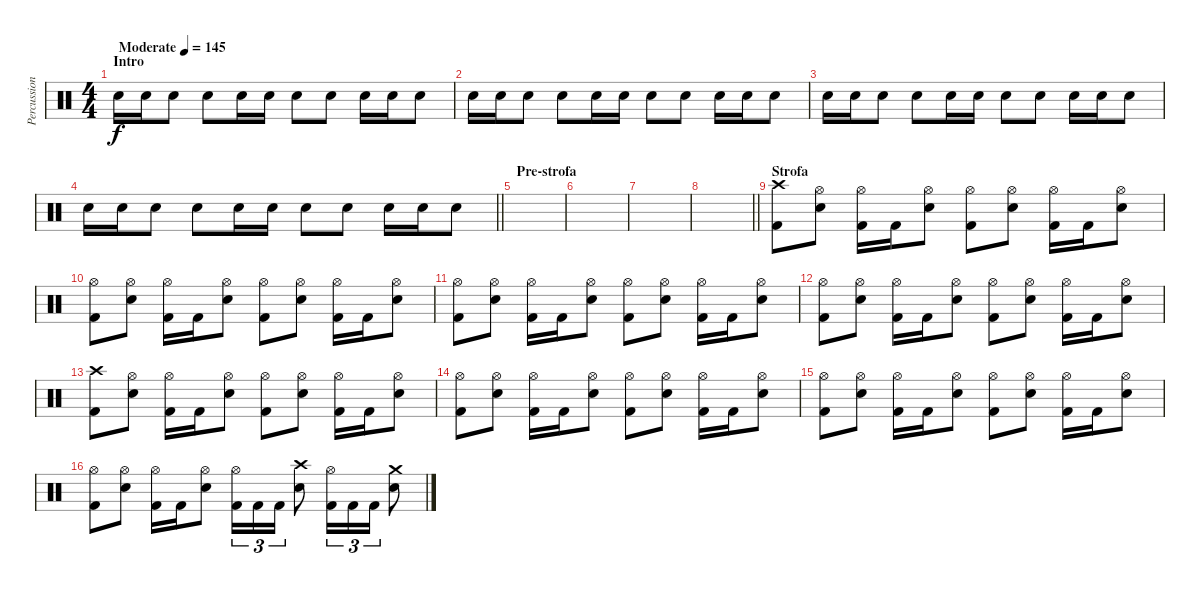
\track ("Percussioni" "Percussion") {instrument percussion}
\staff {score}
\articulation defaults
\ts (4 4)
\section ("" "Intro")
\tempo (145 "Moderate")
\clef neutral
\ks c "Snare (hit) 2".16{dy f} "Snare (hit) 2".16 "Snare (hit) 2".8 "Snare (hit) 2".8 "Snare (hit) 2".16 "Snare (hit) 2".16 "Snare (hit) 2".8 "Snare (hit) 2".8 "Snare (hit) 2".16 "Snare (hit) 2".16 "Snare (hit) 2".8
|
"Snare (hit) 2".16 "Snare (hit) 2".16 "Snare (hit) 2".8 "Snare (hit) 2".8 "Snare (hit) 2".16 "Snare (hit) 2".16 "Snare (hit) 2".8 "Snare (hit) 2".8 "Snare (hit) 2".16 "Snare (hit) 2".16 "Snare (hit) 2".8 |
"Snare (hit) 2".16 "Snare (hit) 2".16 "Snare (hit) 2".8 "Snare (hit) 2".8 "Snare (hit) 2".16 "Snare (hit) 2".16 "Snare (hit) 2".8 "Snare (hit) 2".8 "Snare (hit) 2".16 "Snare (hit) 2".16 "Snare (hit) 2".8 |
\barLineRight lightlight "Snare (hit) 2".16 "Snare (hit) 2".16 "Snare (hit) 2".8 "Snare (hit) 2".8 "Snare (hit) 2".16 "Snare (hit) 2".16 "Snare (hit) 2".8 "Snare (hit) 2".8 "Snare (hit) 2".16 "Snare (hit) 2".16 "Snare (hit) 2".8
|
\section ("" "Pre-strofa")
|
|
|
\barLineRight lightlight
|
\section ("" "Strofa")
("Crash high (hit)" "Kick (hit) 2").8 ("Hi-Hat (open)" "Snare (hit) 2").8 ("Hi-Hat (open)" "Kick (hit) 2").16 "Kick (hit) 2".16 ("Hi-Hat (open)" "Snare (hit) 2").8 ("Hi-Hat (open)" "Kick (hit) 2").8 ("Hi-Hat (open)" "Snare (hit) 2").8 ("Hi-Hat (open)" "Kick (hit) 2").16 "Kick (hit) 2".16 ("Hi-Hat (open)" "Snare (hit) 2").8 |
("Hi-Hat (open)" "Kick (hit) 2").8 ("Hi-Hat (open)" "Snare (hit) 2").8 ("Hi-Hat (open)" "Kick (hit) 2").16 "Kick (hit) 2".16 ("Hi-Hat (open)" "Snare (hit) 2").8 ("Hi-Hat (open)" "Kick (hit) 2").8 ("Hi-Hat (open)" "Snare (hit) 2").8 ("Hi-Hat (open)" "Kick (hit) 2").16 "Kick (hit) 2".16 ("Hi-Hat (open)" "Snare (hit) 2").8 |
("Hi-Hat (open)" "Kick (hit) 2").8 ("Hi-Hat (open)" "Snare (hit) 2").8 ("Hi-Hat (open)" "Kick (hit) 2").16 "Kick (hit) 2".16 ("Hi-Hat (open)" "Snare (hit) 2").8 ("Hi-Hat (open)" "Kick (hit) 2").8 ("Hi-Hat (open)" "Snare (hit) 2").8 ("Hi-Hat (open)" "Kick (hit) 2").16 "Kick (hit) 2".16 ("Hi-Hat (open)" "Snare (hit) 2").8 |
("Hi-Hat (open)" "Kick (hit) 2").8 ("Hi-Hat (open)" "Snare (hit) 2").8 ("Hi-Hat (open)" "Kick (hit) 2").16 "Kick (hit) 2".16 ("Hi-Hat (open)" "Snare (hit) 2").8 ("Hi-Hat (open)" "Kick (hit) 2").8 ("Hi-Hat (open)" "Snare (hit) 2").8 ("Hi-Hat (open)" "Kick (hit) 2").16 "Kick (hit) 2".16 ("Hi-Hat (open)" "Snare (hit) 2").8 |
("Crash high (hit)" "Kick (hit) 2").8 ("Hi-Hat (open)" "Snare (hit) 2").8 ("Hi-Hat (open)" "Kick (hit) 2").16 "Kick (hit) 2".16 ("Hi-Hat (open)" "Snare (hit) 2").8 ("Hi-Hat (open)" "Kick (hit) 2").8 ("Hi-Hat (open)" "Snare (hit) 2").8 ("Hi-Hat (open)" "Kick (hit) 2").16 "Kick (hit) 2".16 ("Hi-Hat (open)" "Snare (hit) 2").8 |
("Hi-Hat (open)" "Kick (hit) 2").8 ("Hi-Hat (open)" "Snare (hit) 2").8 ("Hi-Hat (open)" "Kick (hit) 2").16 "Kick (hit) 2".16 ("Hi-Hat (open)" "Snare (hit) 2").8 ("Hi-Hat (open)" "Kick (hit) 2").8 ("Hi-Hat (open)" "Snare (hit) 2").8 ("Hi-Hat (open)" "Kick (hit) 2").16 "Kick (hit) 2".16 ("Hi-Hat (open)" "Snare (hit) 2").8 |
("Hi-Hat (open)" "Kick (hit) 2").8 ("Hi-Hat (open)" "Snare (hit) 2").8 ("Hi-Hat (open)" "Kick (hit) 2").16 "Kick (hit) 2".16 ("Hi-Hat (open)" "Snare (hit) 2").8 ("Hi-Hat (open)" "Kick (hit) 2").8 ("Hi-Hat (open)" "Snare (hit) 2").8 ("Hi-Hat (open)" "Kick (hit) 2").16 "Kick (hit) 2".16 ("Hi-Hat (open)" "Snare (hit) 2").8 |
("Hi-Hat (open)" "Kick (hit) 2").8 ("Hi-Hat (open)" "Snare (hit) 2").8 ("Hi-Hat (open)" "Kick (hit) 2").16 "Kick (hit) 2".16 ("Hi-Hat (open)" "Snare (hit) 2").8 ("Hi-Hat (open)" "Kick (hit) 2").16{tu (3 2)} "Kick (hit) 2".16{tu (3 2)} "Kick (hit) 2".16{tu (3 2)} ("Crash high (hit)" "Snare (hit) 2").8 ("Hi-Hat (open)" "Kick (hit) 2").16{tu (3 2)} "Kick (hit) 2".16{tu (3 2)} "Kick (hit) 2".16{tu (3 2)} ("Crash medium (hit)" "Snare (hit) 2").8
